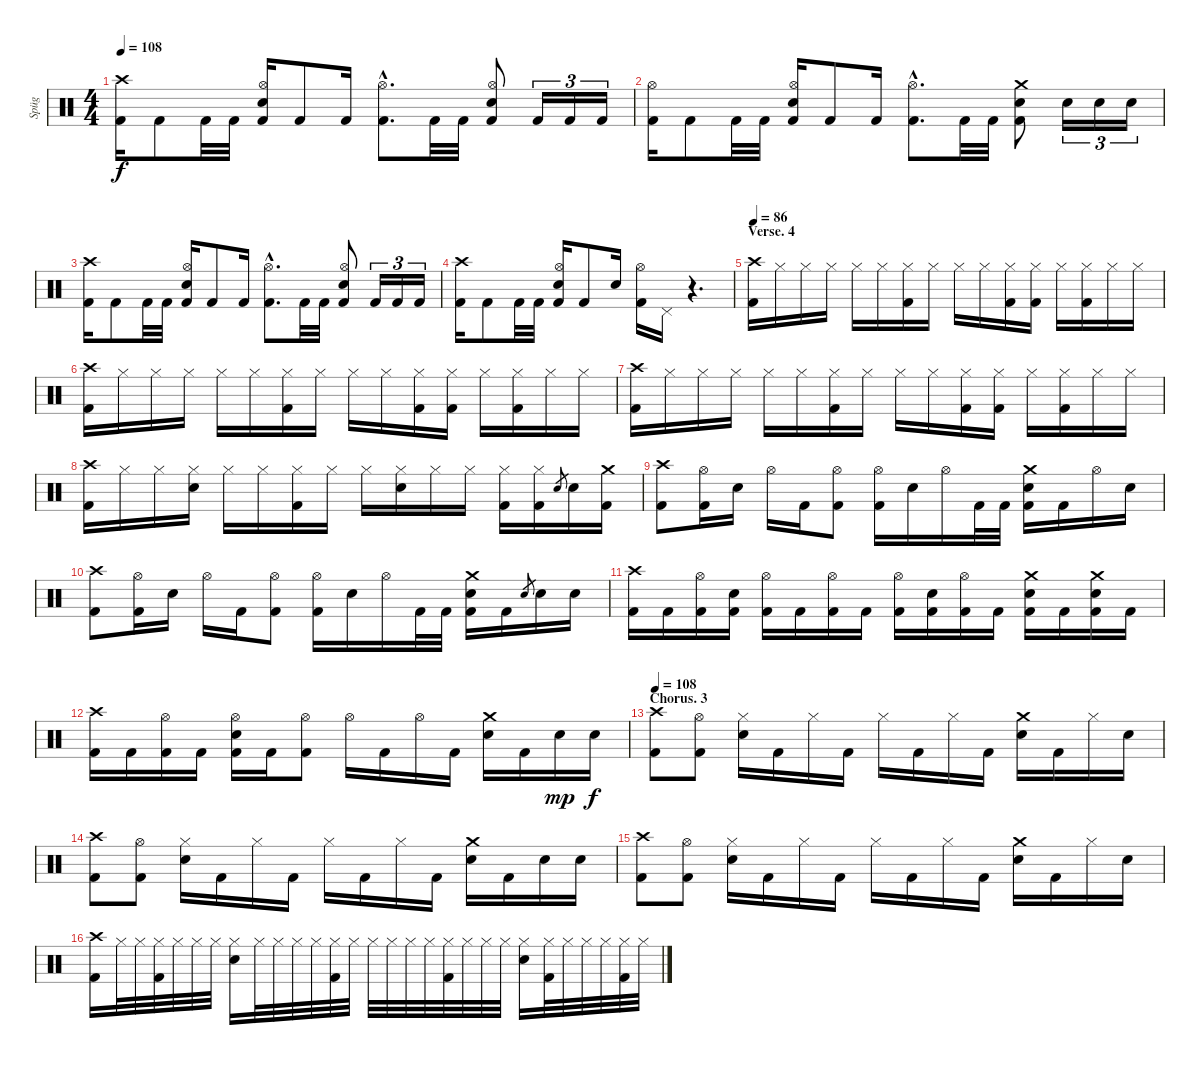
\track ("Spüg" "Spüg") {instrument percussion}
\staff {score}
\articulation defaults
\ts (4 4)
\tempo 108
\clef neutral
\ks c
("Crash high (hit)" "Kick (hit) 2").16{dy f} "Kick (hit) 2".8 "Kick (hit) 2".32 "Kick (hit) 2".32 ("Hi-Hat (open)" "Electric Snare (hit)" "Kick (hit) 2").16 "Kick (hit) 2".8 "Kick (hit) 2".16 ("Hi-Hat (open)"{hac} "Kick (hit) 2"{hac}).8{d} "Kick (hit) 2".32 "Kick (hit) 2".32 ("Hi-Hat (open)" "Electric Snare (hit)" "Kick (hit) 2").8 "Kick (hit) 2".16{tu (3 2)} "Kick (hit) 2".16{tu (3 2)} "Kick (hit) 2".16{tu (3 2)} |
("Hi-Hat (open)" "Kick (hit) 2").16 "Kick (hit) 2".8 "Kick (hit) 2".32 "Kick (hit) 2".32 ("Hi-Hat (open)" "Electric Snare (hit)" "Kick (hit) 2").16 "Kick (hit) 2".8 "Kick (hit) 2".16 ("Hi-Hat (open)"{hac} "Kick (hit) 2"{hac}).8{d} "Kick (hit) 2".32 "Kick (hit) 2".32 ("Crash medium (hit)" "Electric Snare (hit)" "Kick (hit) 2").8 "Electric Snare (hit)".16{tu (3 2)} "Electric Snare (hit)".16{tu (3 2)} "Electric Snare (hit)".16{tu (3 2)} |
("Crash high (hit)" "Kick (hit) 2").16 "Kick (hit) 2".8 "Kick (hit) 2".32 "Kick (hit) 2".32 ("Hi-Hat (open)" "Electric Snare (hit)" "Kick (hit) 2").16 "Kick (hit) 2".8 "Kick (hit) 2".16 ("Hi-Hat (open)"{hac} "Kick (hit) 2"{hac}).8{d} "Kick (hit) 2".32 "Kick (hit) 2".32 ("Hi-Hat (open)" "Electric Snare (hit)" "Kick (hit) 2").8 "Kick (hit) 2".16{tu (3 2)} "Kick (hit) 2".16{tu (3 2)} "Kick (hit) 2".16{tu (3 2)} |
("Crash high (hit)" "Kick (hit) 2").16 "Kick (hit) 2".8 "Kick (hit) 2".32 "Kick (hit) 2".32 ("Hi-Hat (open)" "Electric Snare (hit)" "Kick (hit) 2").16 "Kick (hit) 2".8 "Electric Snare (hit)".16 ("Hi-Hat (open)" "Kick (hit) 2").16 "Pedal Hi-Hat (hit)".16 r.4{d} |
\section ("" "Verse. 4")
\tempo 86
("Crash high (hit)" "Kick (hit) 2").16 "Hi-Hat (closed)".16 "Hi-Hat (closed)".16 "Hi-Hat (closed)".16 "Hi-Hat (closed)".16 "Hi-Hat (closed)".16 ("Hi-Hat (closed)" "Kick (hit) 2").16 "Hi-Hat (closed)".16 "Hi-Hat (closed)".16 "Hi-Hat (closed)".16 ("Hi-Hat (closed)" "Kick (hit) 2").16 ("Hi-Hat (closed)" "Kick (hit) 2").16 "Hi-Hat (closed)".16 ("Hi-Hat (closed)" "Kick (hit) 2").16 "Hi-Hat (closed)".16 "Hi-Hat (closed)".16 |
("Crash high (hit)" "Kick (hit) 2").16 "Hi-Hat (closed)".16 "Hi-Hat (closed)".16 "Hi-Hat (closed)".16 "Hi-Hat (closed)".16 "Hi-Hat (closed)".16 ("Hi-Hat (closed)" "Kick (hit) 2").16 "Hi-Hat (closed)".16 "Hi-Hat (closed)".16 "Hi-Hat (closed)".16 ("Hi-Hat (closed)" "Kick (hit) 2").16 ("Hi-Hat (closed)" "Kick (hit) 2").16 "Hi-Hat (closed)".16 ("Hi-Hat (closed)" "Kick (hit) 2").16 "Hi-Hat (closed)".16 "Hi-Hat (closed)".16 |
("Crash high (hit)" "Kick (hit) 2").16 "Hi-Hat (closed)".16 "Hi-Hat (closed)".16 "Hi-Hat (closed)".16 "Hi-Hat (closed)".16 "Hi-Hat (closed)".16 ("Hi-Hat (closed)" "Kick (hit) 2").16 "Hi-Hat (closed)".16 "Hi-Hat (closed)".16 "Hi-Hat (closed)".16 ("Hi-Hat (closed)" "Kick (hit) 2").16 ("Hi-Hat (closed)" "Kick (hit) 2").16 "Hi-Hat (closed)".16 ("Hi-Hat (closed)" "Kick (hit) 2").16 "Hi-Hat (closed)".16 "Hi-Hat (closed)".16 |
("Crash high (hit)" "Kick (hit) 2").16 "Hi-Hat (closed)".16 "Hi-Hat (closed)".16 ("Hi-Hat (closed)" "Electric Snare (hit)").16 "Hi-Hat (closed)".16 "Hi-Hat (closed)".16 ("Hi-Hat (closed)" "Kick (hit) 2").16 "Hi-Hat (closed)".16 "Hi-Hat (closed)".16 ("Hi-Hat (closed)" "Electric Snare (hit)").16 "Hi-Hat (closed)".16 "Hi-Hat (closed)".16 ("Hi-Hat (closed)" "Kick (hit) 2").16 ("Hi-Hat (closed)" "Kick (hit) 2").16 "Electric Snare (hit)".8{gr} "Electric Snare (hit)".16 ("Crash medium (hit)" "Kick (hit) 2").16 |
("Crash high (hit)" "Kick (hit) 2").8 ("Hi-Hat (open)" "Kick (hit) 2").16 "Electric Snare (hit)".16 "Hi-Hat (open)".16 "Kick (hit) 2".16 ("Hi-Hat (open)" "Kick (hit) 2").8 ("Hi-Hat (open)" "Kick (hit) 2").16 "Electric Snare (hit)".16 "Hi-Hat (open)".16 "Kick (hit) 2".32 "Kick (hit) 2".32 ("Crash medium (hit)" "Electric Snare (hit)" "Kick (hit) 2").16 "Kick (hit) 2".16 "Hi-Hat (open)".16 "Electric Snare (hit)".16 |
("Crash high (hit)" "Kick (hit) 2").8 ("Hi-Hat (open)" "Kick (hit) 2").16 "Electric Snare (hit)".16 "Hi-Hat (open)".16 "Kick (hit) 2".16 ("Hi-Hat (open)" "Kick (hit) 2").8 ("Hi-Hat (open)" "Kick (hit) 2").16 "Electric Snare (hit)".16 "Hi-Hat (open)".16 "Kick (hit) 2".32 "Kick (hit) 2".32 ("Crash medium (hit)" "Electric Snare (hit)" "Kick (hit) 2").16 "Kick (hit) 2".16 "Electric Snare (hit)".8{gr} "Electric Snare (hit)".16 "Electric Snare (hit)".16 |
("Crash high (hit)" "Kick (hit) 2").16 "Kick (hit) 2".16 ("Hi-Hat (open)" "Kick (hit) 2").16 ("Electric Snare (hit)" "Kick (hit) 2").16 ("Hi-Hat (open)" "Kick (hit) 2").16 "Kick (hit) 2".16 ("Hi-Hat (open)" "Kick (hit) 2").16 "Kick (hit) 2".16 ("Hi-Hat (open)" "Kick (hit) 2").16 ("Electric Snare (hit)" "Kick (hit) 2").16 ("Hi-Hat (open)" "Kick (hit) 2").16 "Kick (hit) 2".16 ("Crash medium (hit)" "Electric Snare (hit)" "Kick (hit) 2").16 "Kick (hit) 2".16 ("Crash medium (hit)" "Electric Snare (hit)" "Kick (hit) 2").16 "Kick (hit) 2".16 |
("Crash high (hit)" "Kick (hit) 2").16 "Kick (hit) 2".16 ("Hi-Hat (open)" "Kick (hit) 2").16 "Kick (hit) 2".16 ("Hi-Hat (open)" "Electric Snare (hit)" "Kick (hit) 2").16 "Kick (hit) 2".16 ("Hi-Hat (open)" "Kick (hit) 2").8 "Hi-Hat (open)".16 "Kick (hit) 2".16 "Hi-Hat (open)".16 "Kick (hit) 2".16 ("Crash medium (hit)" "Electric Snare (hit)").16 "Kick (hit) 2".16 "Electric Snare (hit)".16{dy mp} "Electric Snare (hit)".16{dy f} |
\section ("" "Chorus. 3")
\tempo 106
\tempo 108
("Crash high (hit)" "Kick (hit) 2").8 ("Hi-Hat (open)" "Kick (hit) 2").8 ("Hi-Hat (closed)" "Electric Snare (hit)").16 "Kick (hit) 2".16 "Hi-Hat (closed)".16 "Kick (hit) 2".16 "Hi-Hat (closed)".16 "Kick (hit) 2".16 "Hi-Hat (closed)".16 "Kick (hit) 2".16 ("Crash medium (hit)" "Electric Snare (hit)").16 "Kick (hit) 2".16 "Hi-Hat (closed)".16 "Electric Snare (hit)".16 |
("Crash high (hit)" "Kick (hit) 2").8 ("Hi-Hat (open)" "Kick (hit) 2").8 ("Hi-Hat (closed)" "Electric Snare (hit)").16 "Kick (hit) 2".16 "Hi-Hat (closed)".16 "Kick (hit) 2".16 "Hi-Hat (closed)".16 "Kick (hit) 2".16 "Hi-Hat (closed)".16 "Kick (hit) 2".16 ("Crash medium (hit)" "Electric Snare (hit)").16 "Kick (hit) 2".16 "Electric Snare (hit)".16 "Electric Snare (hit)".16 |
("Crash high (hit)" "Kick (hit) 2").8 ("Hi-Hat (open)" "Kick (hit) 2").8 ("Hi-Hat (closed)" "Electric Snare (hit)").16 "Kick (hit) 2".16 "Hi-Hat (closed)".16 "Kick (hit) 2".16 "Hi-Hat (closed)".16 "Kick (hit) 2".16 "Hi-Hat (closed)".16 "Kick (hit) 2".16 ("Crash medium (hit)" "Electric Snare (hit)").16 "Kick (hit) 2".16 "Hi-Hat (closed)".16 "Electric Snare (hit)".16 |
("Crash high (hit)" "Kick (hit) 2").16 "Hi-Hat (closed)".32 "Hi-Hat (closed)".32 ("Hi-Hat (closed)" "Kick (hit) 2").32 "Hi-Hat (closed)".32 "Hi-Hat (closed)".32 "Hi-Hat (closed)".32 ("Hi-Hat (closed)" "Electric Snare (hit)").16 "Hi-Hat (closed)".32 "Hi-Hat (closed)".32 "Hi-Hat (closed)".32 "Hi-Hat (closed)".32 ("Hi-Hat (closed)" "Kick (hit) 2").32 "Hi-Hat (closed)".32 "Hi-Hat (closed)".32 "Hi-Hat (closed)".32 "Hi-Hat (closed)".32 "Hi-Hat (closed)".32 ("Hi-Hat (closed)" "Kick (hit) 2").32 "Hi-Hat (closed)".32 "Hi-Hat (closed)".32 "Hi-Hat (closed)".32 ("Hi-Hat (closed)" "Electric Snare (hit)").16 ("Hi-Hat (closed)" "Kick (hit) 2").32 "Hi-Hat (closed)".32 "Hi-Hat (closed)".32 "Hi-Hat (closed)".32 ("Hi-Hat (closed)" "Kick (hit) 2").32 "Hi-Hat (closed)".32
